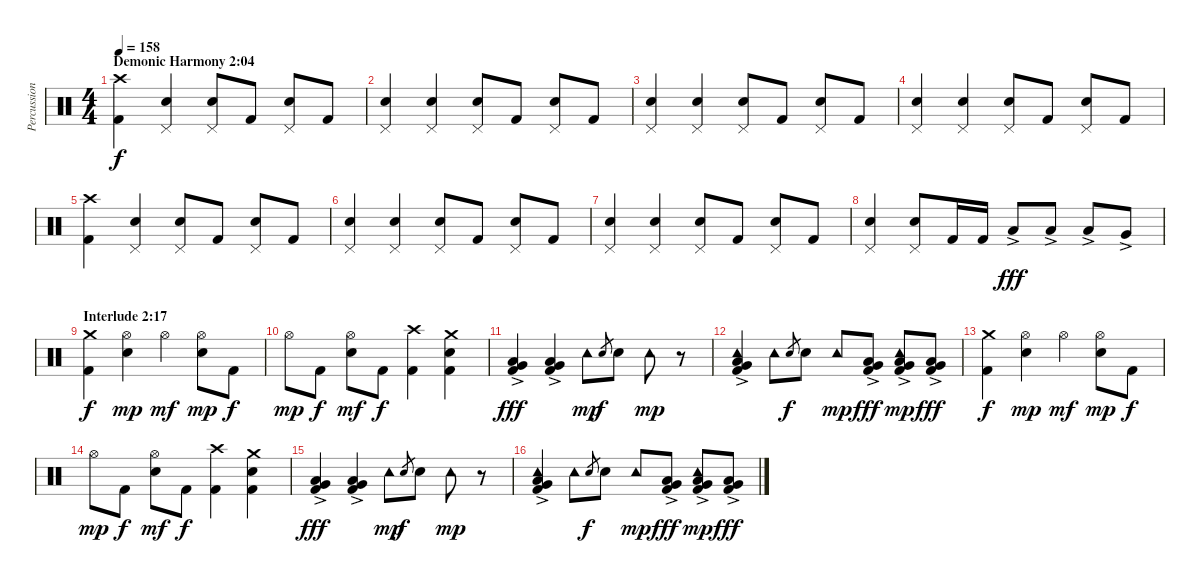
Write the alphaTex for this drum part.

\track ("Percussion" "Percussion") {instrument percussion}
\staff {score}
\articulation defaults
\ts (4 4)
\section ("" "Demonic Harmony 2:04")
\tempo 158
\clef neutral
\ks c
("Kick (hit) 2" "Crash high (hit)").4{dy f} ("Electric Snare (hit)" "Pedal Hi-Hat (hit)").4 ("Electric Snare (hit)" "Pedal Hi-Hat (hit)").8 "Kick (hit) 2".8 ("Electric Snare (hit)" "Pedal Hi-Hat (hit)").8 "Kick (hit) 2".8 |
("Electric Snare (hit)" "Pedal Hi-Hat (hit)").4 ("Electric Snare (hit)" "Pedal Hi-Hat (hit)").4 ("Electric Snare (hit)" "Pedal Hi-Hat (hit)").8 "Kick (hit) 2".8 ("Electric Snare (hit)" "Pedal Hi-Hat (hit)").8 "Kick (hit) 2".8 |
("Electric Snare (hit)" "Pedal Hi-Hat (hit)").4 ("Electric Snare (hit)" "Pedal Hi-Hat (hit)").4 ("Electric Snare (hit)" "Pedal Hi-Hat (hit)").8 "Kick (hit) 2".8 ("Electric Snare (hit)" "Pedal Hi-Hat (hit)").8 "Kick (hit) 2".8 |
("Electric Snare (hit)" "Pedal Hi-Hat (hit)").4 ("Electric Snare (hit)" "Pedal Hi-Hat (hit)").4 ("Electric Snare (hit)" "Pedal Hi-Hat (hit)").8 "Kick (hit) 2".8 ("Electric Snare (hit)" "Pedal Hi-Hat (hit)").8 "Kick (hit) 2".8 |
("Kick (hit) 2" "Crash high (hit)").4 ("Electric Snare (hit)" "Pedal Hi-Hat (hit)").4 ("Electric Snare (hit)" "Pedal Hi-Hat (hit)").8 "Kick (hit) 2".8 ("Electric Snare (hit)" "Pedal Hi-Hat (hit)").8 "Kick (hit) 2".8 |
("Electric Snare (hit)" "Pedal Hi-Hat (hit)").4 ("Electric Snare (hit)" "Pedal Hi-Hat (hit)").4 ("Electric Snare (hit)" "Pedal Hi-Hat (hit)").8 "Kick (hit) 2".8 ("Electric Snare (hit)" "Pedal Hi-Hat (hit)").8 "Kick (hit) 2".8 |
("Electric Snare (hit)" "Pedal Hi-Hat (hit)").4 ("Electric Snare (hit)" "Pedal Hi-Hat (hit)").4 ("Electric Snare (hit)" "Pedal Hi-Hat (hit)").8 "Kick (hit) 2".8 ("Electric Snare (hit)" "Pedal Hi-Hat (hit)").8 "Kick (hit) 2".8 |
("Electric Snare (hit)" "Pedal Hi-Hat (hit)").4 ("Electric Snare (hit)" "Pedal Hi-Hat (hit)").8 "Kick (hit) 2".16 "Kick (hit) 2".16 "Low Tom (hit)"{ac}.8{dy fff} "Low Tom (hit)"{ac}.8 "Low Tom (hit)"{ac}.8 "Very Low Tom (hit)"{ac}.8 |
\section ("" "Interlude 2:17")
("Kick (hit) 2" "Crash medium (hit)").4{dy f} ("Electric Snare (hit)" "Hi-Hat (open)").4{dy mp} "Hi-Hat (open)".4{dy mf} ("Electric Snare (hit)" "Hi-Hat (open)").8{dy mp} "Kick (hit) 2".8{dy f} |
"Hi-Hat (open)".8{dy mp} "Kick (hit) 2".8{dy f} ("Electric Snare (hit)" "Hi-Hat (open)").8{dy mf} "Kick (hit) 2".8{dy f} ("Kick (hit) 2" "Crash high (hit)").4 ("Kick (hit) 2" "Electric Snare (hit)" "Crash medium (hit)").4 |
("Kick (hit) 2" "Very Low Tom (hit)"{ac} "Low Tom (hit)"{ac}).4{dy fff} ("Kick (hit) 2" "Very Low Tom (hit)"{ac} "Low Floor Tom (hit)"{ac}).4 "Tambourine (hit)".8{dy mp} "Electric Snare (hit)".8{gr dy f} "Electric Snare (hit)".8 "Tambourine (hit)".8{dy mp} r.8 |
("Kick (hit) 2" "Very Low Tom (hit)"{ac} "Low Tom (hit)"{ac} "Tambourine (hit)").4 "Tambourine (hit)".8 "Electric Snare (hit)".8{gr dy f} "Electric Snare (hit)".8 "Tambourine (hit)".8{dy mp} ("Kick (hit) 2" "Very Low Tom (hit)"{ac} "Low Floor Tom (hit)"{ac}).8{dy fff} ("Kick (hit) 2" "Very Low Tom (hit)"{ac} "Low Tom (hit)"{ac} "Tambourine (hit)").8{dy mp} ("Kick (hit) 2" "Very Low Tom (hit)"{ac} "Low Tom (hit)"{ac}).8{dy fff} |
("Kick (hit) 2" "Crash medium (hit)").4{dy f} ("Electric Snare (hit)" "Hi-Hat (open)").4{dy mp} "Hi-Hat (open)".4{dy mf} ("Electric Snare (hit)" "Hi-Hat (open)").8{dy mp} "Kick (hit) 2".8{dy f} |
"Hi-Hat (open)".8{dy mp} "Kick (hit) 2".8{dy f} ("Electric Snare (hit)" "Hi-Hat (open)").8{dy mf} "Kick (hit) 2".8{dy f} ("Kick (hit) 2" "Crash high (hit)").4 ("Kick (hit) 2" "Electric Snare (hit)" "Crash medium (hit)").4 |
("Kick (hit) 2" "Very Low Tom (hit)"{ac} "Low Tom (hit)"{ac}).4{dy fff} ("Kick (hit) 2" "Very Low Tom (hit)"{ac} "Low Floor Tom (hit)"{ac}).4 "Tambourine (hit)".8{dy mp} "Electric Snare (hit)".8{gr dy f} "Electric Snare (hit)".8 "Tambourine (hit)".8{dy mp} r.8 |
("Kick (hit) 2" "Very Low Tom (hit)"{ac} "Low Tom (hit)"{ac} "Tambourine (hit)").4 "Tambourine (hit)".8 "Electric Snare (hit)".8{gr dy f} "Electric Snare (hit)".8 "Tambourine (hit)".8{dy mp} ("Kick (hit) 2" "Very Low Tom (hit)"{ac} "Low Floor Tom (hit)"{ac}).8{dy fff} ("Kick (hit) 2" "Very Low Tom (hit)"{ac} "Low Tom (hit)"{ac} "Tambourine (hit)").8{dy mp} ("Kick (hit) 2" "Very Low Tom (hit)"{ac} "Low Tom (hit)"{ac}).8{dy fff}
